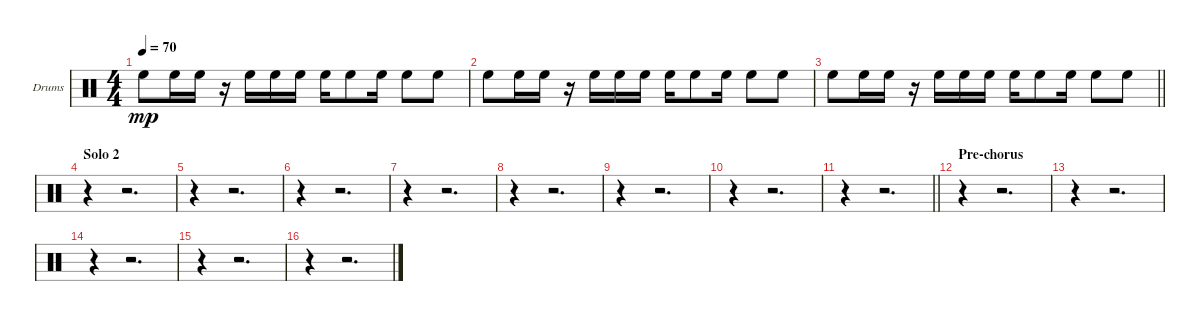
\bracketExtendMode groupsimilarinstruments
\firstSystemTrackNameOrientation horizontal
\otherSystemsTrackNameOrientation horizontal
\track ("Drumkit" "Drums") {instrument percussion}
\staff {score}
\articulation defaults
\ts (4 4)
\tempo 70
\clef neutral
\ks c "High Floor Tom (hit)".8{dy mp} "High Floor Tom (hit)".16 "High Floor Tom (hit)".16
r.16 "High Floor Tom (hit)".16 "High Floor Tom (hit)".16 "High Floor Tom (hit)".16 "High Floor Tom (hit)".16 "High Floor Tom (hit)".8 "High Floor Tom (hit)".16 "High Floor Tom (hit)".8 "High Floor Tom (hit)".8 |
"High Floor Tom (hit)".8 "High Floor Tom (hit)".16 "High Floor Tom (hit)".16 r.16 "High Floor Tom (hit)".16 "High Floor Tom (hit)".16 "High Floor Tom (hit)".16 "High Floor Tom (hit)".16 "High Floor Tom (hit)".8 "High Floor Tom (hit)".16 "High Floor Tom (hit)".8 "High Floor Tom (hit)".8 |
\barLineRight lightlight "High Floor Tom (hit)".8 "High Floor Tom (hit)".16 "High Floor Tom (hit)".16
r.16 "High Floor Tom (hit)".16 "High Floor Tom (hit)".16 "High Floor Tom (hit)".16 "High Floor Tom (hit)".16 "High Floor Tom (hit)".8 "High Floor Tom (hit)".16 "High Floor Tom (hit)".8 "High Floor Tom (hit)".8 |
\section ("" "Solo 2")
r.4 r.2{d} |
r.4 r.2{d} |
r.4 r.2{d} |
r.4 r.2{d} |
r.4 r.2{d} |
r.4 r.2{d} |
r.4 r.2{d} |
\barLineRight lightlight
r.4 r.2{d} |
\section ("" "Pre-chorus")
r.4 r.2{d} |
r.4 r.2{d} |
r.4 r.2{d} |
r.4 r.2{d} |
r.4 r.2{d}
